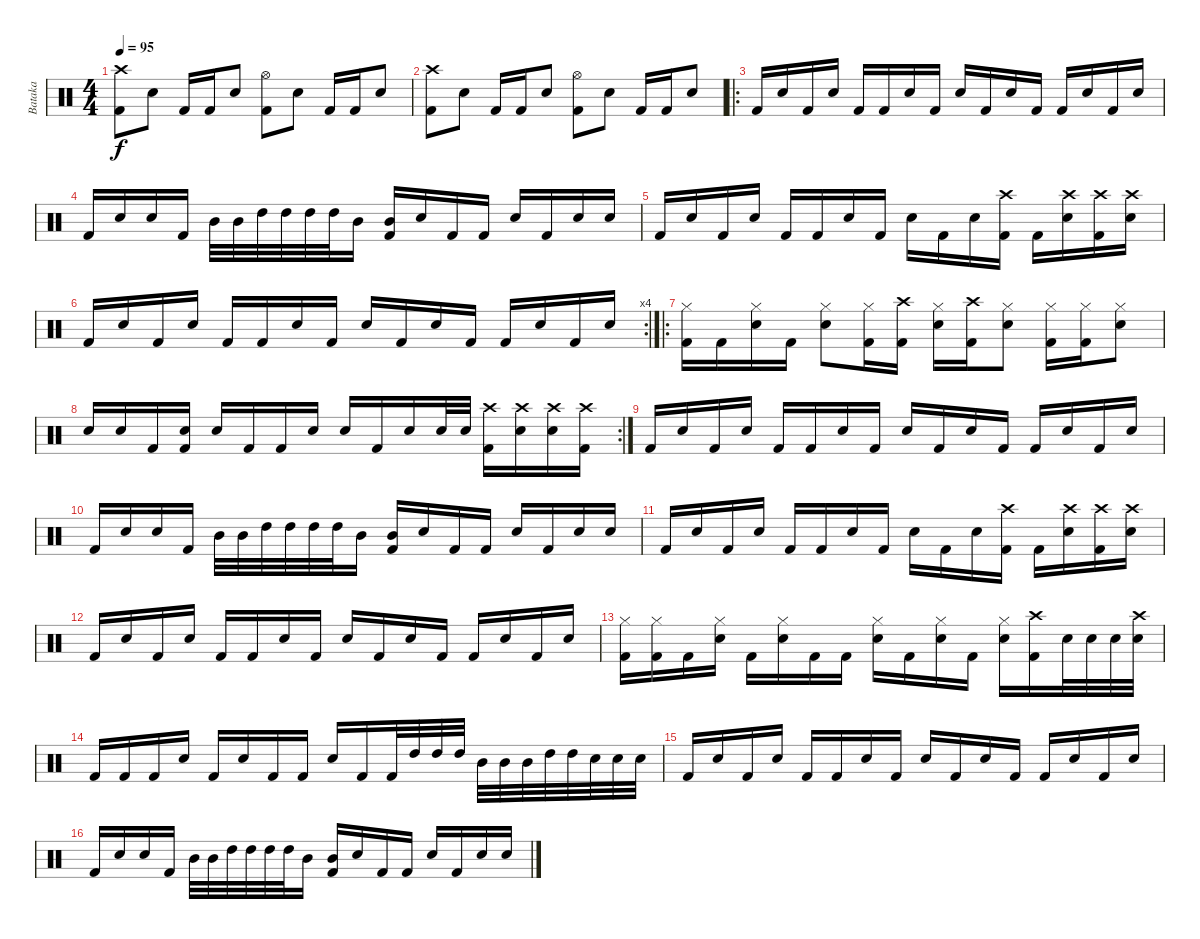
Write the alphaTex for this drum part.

\track ("Bataka" "Bataka") {instrument percussion}
\staff {score}
\articulation defaults
\ts (4 4)
\tempo 95
\clef neutral
\ks c
("Crash high (hit)" "Kick (hit) 2").8{dy f} "Electric Snare (hit)".8 "Kick (hit) 2".16 "Kick (hit) 2".16 "Electric Snare (hit)".8 ("Hi-Hat (open)" "Kick (hit) 2").8 "Electric Snare (hit)".8 "Kick (hit) 2".16 "Kick (hit) 2".16 "Electric Snare (hit)".8 |
("Crash high (hit)" "Kick (hit) 2").8 "Electric Snare (hit)".8 "Kick (hit) 2".16 "Kick (hit) 2".16 "Electric Snare (hit)".8 ("Hi-Hat (open)" "Kick (hit) 2").8 "Electric Snare (hit)".8 "Kick (hit) 2".16 "Kick (hit) 2".16 "Electric Snare (hit)".8 |
\ro "Kick (hit) 2".16 "Electric Snare (hit)".16 "Kick (hit) 2".16 "Electric Snare (hit)".16 "Kick (hit) 2".16 "Kick (hit) 2".16 "Electric Snare (hit)".16 "Kick (hit) 2".16 "Electric Snare (hit)".16 "Kick (hit) 2".16 "Electric Snare (hit)".16 "Kick (hit) 2".16 "Kick (hit) 2".16 "Electric Snare (hit)".16 "Kick (hit) 2".16 "Electric Snare (hit)".16
|
"Kick (hit) 2".16 "Electric Snare (hit)".16 "Electric Snare (hit)".16 "Kick (hit) 2".16 "Mid Tom (hit)".32 "Mid Tom (hit)".32 "High Tom (hit)".32 "High Tom (hit)".32 "High Tom (hit)".32 "High Tom (hit)".32 "Mid Tom (hit)".16 ("Mid Tom (hit)" "Kick (hit) 2").16 "Electric Snare (hit)".16 "Kick (hit) 2".16 "Kick (hit) 2".16 "Electric Snare (hit)".16 "Kick (hit) 2".16 "Electric Snare (hit)".16 "Electric Snare (hit)".16 |
"Kick (hit) 2".16 "Electric Snare (hit)".16 "Kick (hit) 2".16 "Electric Snare (hit)".16 "Kick (hit) 2".16 "Kick (hit) 2".16 "Electric Snare (hit)".16 "Kick (hit) 2".16 "Electric Snare (hit)".16 "Kick (hit) 2".16 "Electric Snare (hit)".16 ("Crash high (hit)" "Kick (hit) 2").16 "Kick (hit) 2".16 ("Crash high (hit)" "Electric Snare (hit)").16 ("Crash high (hit)" "Kick (hit) 2").16 ("Crash high (hit)" "Electric Snare (hit)").16 |
\rc 4 "Kick (hit) 2".16 "Electric Snare (hit)".16 "Kick (hit) 2".16 "Electric Snare (hit)".16 "Kick (hit) 2".16 "Kick (hit) 2".16 "Electric Snare (hit)".16 "Kick (hit) 2".16 "Electric Snare (hit)".16 "Kick (hit) 2".16 "Electric Snare (hit)".16 "Kick (hit) 2".16 "Kick (hit) 2".16 "Electric Snare (hit)".16 "Kick (hit) 2".16 "Electric Snare (hit)".16
|
\ro
("Hi-Hat (closed)" "Kick (hit) 2").16 "Kick (hit) 2".16 ("Hi-Hat (closed)" "Electric Snare (hit)").16 "Kick (hit) 2".16 ("Hi-Hat (closed)" "Electric Snare (hit)").8 ("Hi-Hat (closed)" "Kick (hit) 2").16 ("Crash high (hit)" "Kick (hit) 2").16 ("Hi-Hat (closed)" "Electric Snare (hit)").16 ("Crash high (hit)" "Kick (hit) 2").16 ("Hi-Hat (closed)" "Electric Snare (hit)").8 ("Hi-Hat (closed)" "Kick (hit) 2").16 ("Hi-Hat (closed)" "Kick (hit) 2").16 ("Hi-Hat (closed)" "Electric Snare (hit)").8 |
\rc 2 "Electric Snare (hit)".16 "Electric Snare (hit)".16 "Kick (hit) 2".16
("Kick (hit) 2" "Electric Snare (hit)").16 "Electric Snare (hit)".16 "Kick (hit) 2".16 "Kick (hit) 2".16 "Electric Snare (hit)".16 "Electric Snare (hit)".16 "Kick (hit) 2".16 "Electric Snare (hit)".16 "Electric Snare (hit)".32 "Electric Snare (hit)".32 ("Crash high (hit)" "Kick (hit) 2").16 ("Crash high (hit)" "Electric Snare (hit)").16 ("Crash high (hit)" "Electric Snare (hit)").16 ("Crash high (hit)" "Kick (hit) 2").16 |
"Kick (hit) 2".16 "Electric Snare (hit)".16 "Kick (hit) 2".16 "Electric Snare (hit)".16 "Kick (hit) 2".16 "Kick (hit) 2".16 "Electric Snare (hit)".16 "Kick (hit) 2".16 "Electric Snare (hit)".16 "Kick (hit) 2".16 "Electric Snare (hit)".16 "Kick (hit) 2".16 "Kick (hit) 2".16 "Electric Snare (hit)".16 "Kick (hit) 2".16 "Electric Snare (hit)".16 |
"Kick (hit) 2".16 "Electric Snare (hit)".16 "Electric Snare (hit)".16 "Kick (hit) 2".16 "Mid Tom (hit)".32 "Mid Tom (hit)".32 "High Tom (hit)".32 "High Tom (hit)".32 "High Tom (hit)".32 "High Tom (hit)".32 "Mid Tom (hit)".16 ("Mid Tom (hit)" "Kick (hit) 2").16 "Electric Snare (hit)".16 "Kick (hit) 2".16 "Kick (hit) 2".16 "Electric Snare (hit)".16 "Kick (hit) 2".16 "Electric Snare (hit)".16 "Electric Snare (hit)".16 |
"Kick (hit) 2".16 "Electric Snare (hit)".16 "Kick (hit) 2".16 "Electric Snare (hit)".16 "Kick (hit) 2".16 "Kick (hit) 2".16 "Electric Snare (hit)".16 "Kick (hit) 2".16 "Electric Snare (hit)".16 "Kick (hit) 2".16 "Electric Snare (hit)".16 ("Crash high (hit)" "Kick (hit) 2").16 "Kick (hit) 2".16 ("Crash high (hit)" "Electric Snare (hit)").16 ("Crash high (hit)" "Kick (hit) 2").16 ("Crash high (hit)" "Electric Snare (hit)").16 |
"Kick (hit) 2".16 "Electric Snare (hit)".16 "Kick (hit) 2".16 "Electric Snare (hit)".16 "Kick (hit) 2".16 "Kick (hit) 2".16 "Electric Snare (hit)".16 "Kick (hit) 2".16 "Electric Snare (hit)".16 "Kick (hit) 2".16 "Electric Snare (hit)".16 "Kick (hit) 2".16 "Kick (hit) 2".16 "Electric Snare (hit)".16 "Kick (hit) 2".16 "Electric Snare (hit)".16 |
("Hi-Hat (closed)" "Kick (hit) 2").16 ("Hi-Hat (closed)" "Kick (hit) 2").16 "Kick (hit) 2".16 ("Hi-Hat (closed)" "Electric Snare (hit)").16 "Kick (hit) 2".16 ("Hi-Hat (closed)" "Electric Snare (hit)").16 "Kick (hit) 2".16 "Kick (hit) 2".16 ("Hi-Hat (closed)" "Electric Snare (hit)").16 "Kick (hit) 2".16 ("Hi-Hat (closed)" "Electric Snare (hit)").16 "Kick (hit) 2".16 ("Hi-Hat (closed)" "Electric Snare (hit)").16 ("Crash high (hit)" "Kick (hit) 2").16 "Electric Snare (hit)".32 "Electric Snare (hit)".32 "Electric Snare (hit)".32 ("Crash high (hit)" "Electric Snare (hit)").32 |
"Kick (hit) 2".16 "Kick (hit) 2".16 "Kick (hit) 2".16 "Electric Snare (hit)".16 "Kick (hit) 2".16 "Electric Snare (hit)".16 "Kick (hit) 2".16 "Kick (hit) 2".16 "Electric Snare (hit)".16 "Kick (hit) 2".16 "Kick (hit) 2".32 "High Tom (hit)".32 "High Tom (hit)".32 "High Tom (hit)".32 "Mid Tom (hit)".32 "Mid Tom (hit)".32 "Mid Tom (hit)".32 "High Tom (hit)".32 "High Tom (hit)".32 "Electric Snare (hit)".32 "Electric Snare (hit)".32 "Electric Snare (hit)".32 |
"Kick (hit) 2".16 "Electric Snare (hit)".16 "Kick (hit) 2".16 "Electric Snare (hit)".16 "Kick (hit) 2".16 "Kick (hit) 2".16 "Electric Snare (hit)".16 "Kick (hit) 2".16 "Electric Snare (hit)".16 "Kick (hit) 2".16 "Electric Snare (hit)".16 "Kick (hit) 2".16 "Kick (hit) 2".16 "Electric Snare (hit)".16 "Kick (hit) 2".16 "Electric Snare (hit)".16 |
"Kick (hit) 2".16 "Electric Snare (hit)".16 "Electric Snare (hit)".16 "Kick (hit) 2".16 "Mid Tom (hit)".32 "Mid Tom (hit)".32 "High Tom (hit)".32 "High Tom (hit)".32 "High Tom (hit)".32 "High Tom (hit)".32 "Mid Tom (hit)".16 ("Mid Tom (hit)" "Kick (hit) 2").16 "Electric Snare (hit)".16 "Kick (hit) 2".16 "Kick (hit) 2".16 "Electric Snare (hit)".16 "Kick (hit) 2".16 "Electric Snare (hit)".16 "Electric Snare (hit)".16
